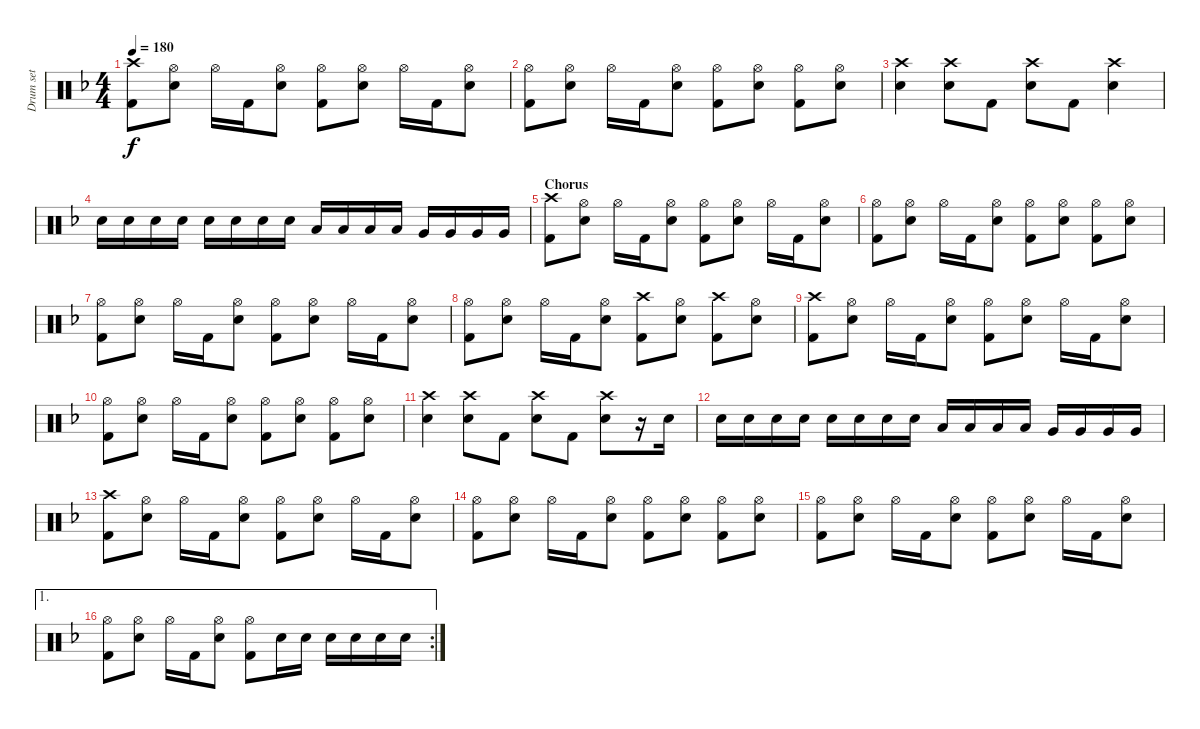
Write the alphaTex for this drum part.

\track ("Drum set" "Drum set") {instrument percussion}
\staff {score}
\articulation defaults
\ts (4 4)
\tempo 180
\clef neutral
\ks f
("Crash high (hit)" "Kick (hit) 2").8{dy f} ("Hi-Hat (open)" "Electric Snare (hit)").8 "Hi-Hat (open)".16 "Kick (hit) 2".16 ("Hi-Hat (open)" "Electric Snare (hit)").8 ("Hi-Hat (open)" "Kick (hit) 2").8 ("Hi-Hat (open)" "Electric Snare (hit)").8 "Hi-Hat (open)".16 "Kick (hit) 2".16 ("Hi-Hat (open)" "Electric Snare (hit)").8 |
("Hi-Hat (open)" "Kick (hit) 2").8 ("Hi-Hat (open)" "Electric Snare (hit)").8 "Hi-Hat (open)".16 "Kick (hit) 2".16 ("Hi-Hat (open)" "Electric Snare (hit)").8 ("Hi-Hat (open)" "Kick (hit) 2").8 ("Hi-Hat (open)" "Electric Snare (hit)").8 ("Hi-Hat (open)" "Kick (hit) 2").8 ("Hi-Hat (open)" "Electric Snare (hit)").8 |
("Crash high (hit)" "Electric Snare (hit)").4 ("Crash high (hit)" "Electric Snare (hit)").8 "Kick (hit) 2".8 ("Crash high (hit)" "Electric Snare (hit)").8 "Kick (hit) 2".8 ("Crash high (hit)" "Electric Snare (hit)").4 |
"Electric Snare (hit)".16 "Electric Snare (hit)".16 "Electric Snare (hit)".16 "Electric Snare (hit)".16 "Electric Snare (hit)".16 "Electric Snare (hit)".16 "Electric Snare (hit)".16 "Electric Snare (hit)".16 "Low Tom (hit)".16 "Low Tom (hit)".16 "Low Tom (hit)".16 "Low Tom (hit)".16 "Very Low Tom (hit)".16 "Very Low Tom (hit)".16 "Very Low Tom (hit)".16 "Very Low Tom (hit)".16 |
\section ("" "Chorus")
("Crash high (hit)" "Kick (hit) 2").8 ("Hi-Hat (open)" "Electric Snare (hit)").8 "Hi-Hat (open)".16 "Kick (hit) 2".16 ("Hi-Hat (open)" "Electric Snare (hit)").8 ("Hi-Hat (open)" "Kick (hit) 2").8 ("Hi-Hat (open)" "Electric Snare (hit)").8 "Hi-Hat (open)".16 "Kick (hit) 2".16 ("Hi-Hat (open)" "Electric Snare (hit)").8 |
("Hi-Hat (open)" "Kick (hit) 2").8 ("Hi-Hat (open)" "Electric Snare (hit)").8 "Hi-Hat (open)".16 "Kick (hit) 2".16 ("Hi-Hat (open)" "Electric Snare (hit)").8 ("Hi-Hat (open)" "Kick (hit) 2").8 ("Hi-Hat (open)" "Electric Snare (hit)").8 ("Hi-Hat (open)" "Kick (hit) 2").8 ("Hi-Hat (open)" "Electric Snare (hit)").8 |
("Hi-Hat (open)" "Kick (hit) 2").8 ("Hi-Hat (open)" "Electric Snare (hit)").8 "Hi-Hat (open)".16 "Kick (hit) 2".16 ("Hi-Hat (open)" "Electric Snare (hit)").8 ("Hi-Hat (open)" "Kick (hit) 2").8 ("Hi-Hat (open)" "Electric Snare (hit)").8 "Hi-Hat (open)".16 "Kick (hit) 2".16 ("Hi-Hat (open)" "Electric Snare (hit)").8 |
("Hi-Hat (open)" "Kick (hit) 2").8 ("Hi-Hat (open)" "Electric Snare (hit)").8 "Hi-Hat (open)".16 "Kick (hit) 2".16 ("Hi-Hat (open)" "Electric Snare (hit)").8 ("Crash high (hit)" "Kick (hit) 2").8 ("Hi-Hat (open)" "Electric Snare (hit)").8 ("Crash high (hit)" "Kick (hit) 2").8 ("Hi-Hat (open)" "Electric Snare (hit)").8 |
("Crash high (hit)" "Kick (hit) 2").8 ("Hi-Hat (open)" "Electric Snare (hit)").8 "Hi-Hat (open)".16 "Kick (hit) 2".16 ("Hi-Hat (open)" "Electric Snare (hit)").8 ("Hi-Hat (open)" "Kick (hit) 2").8 ("Hi-Hat (open)" "Electric Snare (hit)").8 "Hi-Hat (open)".16 "Kick (hit) 2".16 ("Hi-Hat (open)" "Electric Snare (hit)").8 |
("Hi-Hat (open)" "Kick (hit) 2").8 ("Hi-Hat (open)" "Electric Snare (hit)").8 "Hi-Hat (open)".16 "Kick (hit) 2".16 ("Hi-Hat (open)" "Electric Snare (hit)").8 ("Hi-Hat (open)" "Kick (hit) 2").8 ("Hi-Hat (open)" "Electric Snare (hit)").8 ("Hi-Hat (open)" "Kick (hit) 2").8 ("Hi-Hat (open)" "Electric Snare (hit)").8 |
("Crash high (hit)" "Electric Snare (hit)").4 ("Crash high (hit)" "Electric Snare (hit)").8 "Kick (hit) 2".8 ("Crash high (hit)" "Electric Snare (hit)").8 "Kick (hit) 2".8 ("Crash high (hit)" "Electric Snare (hit)").8 r.16 "Electric Snare (hit)".16 |
"Electric Snare (hit)".16 "Electric Snare (hit)".16 "Electric Snare (hit)".16 "Electric Snare (hit)".16 "Electric Snare (hit)".16 "Electric Snare (hit)".16 "Electric Snare (hit)".16 "Electric Snare (hit)".16 "Low Tom (hit)".16 "Low Tom (hit)".16 "Low Tom (hit)".16 "Low Tom (hit)".16 "Very Low Tom (hit)".16 "Very Low Tom (hit)".16 "Very Low Tom (hit)".16 "Very Low Tom (hit)".16 |
("Crash high (hit)" "Kick (hit) 2").8 ("Hi-Hat (open)" "Electric Snare (hit)").8 "Hi-Hat (open)".16 "Kick (hit) 2".16 ("Hi-Hat (open)" "Electric Snare (hit)").8 ("Hi-Hat (open)" "Kick (hit) 2").8 ("Hi-Hat (open)" "Electric Snare (hit)").8 "Hi-Hat (open)".16 "Kick (hit) 2".16 ("Hi-Hat (open)" "Electric Snare (hit)").8 |
("Hi-Hat (open)" "Kick (hit) 2").8 ("Hi-Hat (open)" "Electric Snare (hit)").8 "Hi-Hat (open)".16 "Kick (hit) 2".16 ("Hi-Hat (open)" "Electric Snare (hit)").8 ("Hi-Hat (open)" "Kick (hit) 2").8 ("Hi-Hat (open)" "Electric Snare (hit)").8 ("Hi-Hat (open)" "Kick (hit) 2").8 ("Hi-Hat (open)" "Electric Snare (hit)").8 |
("Hi-Hat (open)" "Kick (hit) 2").8 ("Hi-Hat (open)" "Electric Snare (hit)").8 "Hi-Hat (open)".16 "Kick (hit) 2".16 ("Hi-Hat (open)" "Electric Snare (hit)").8 ("Hi-Hat (open)" "Kick (hit) 2").8 ("Hi-Hat (open)" "Electric Snare (hit)").8 "Hi-Hat (open)".16 "Kick (hit) 2".16 ("Hi-Hat (open)" "Electric Snare (hit)").8 |
\ae 1
\rc 2
("Hi-Hat (open)" "Kick (hit) 2").8 ("Hi-Hat (open)" "Electric Snare (hit)").8 "Hi-Hat (open)".16 "Kick (hit) 2".16 ("Hi-Hat (open)" "Electric Snare (hit)").8 ("Hi-Hat (open)" "Kick (hit) 2").8 "Electric Snare (hit)".16 "Electric Snare (hit)".16 "Electric Snare (hit)".16 "Electric Snare (hit)".16 "Electric Snare (hit)".16 "Electric Snare (hit)".16
